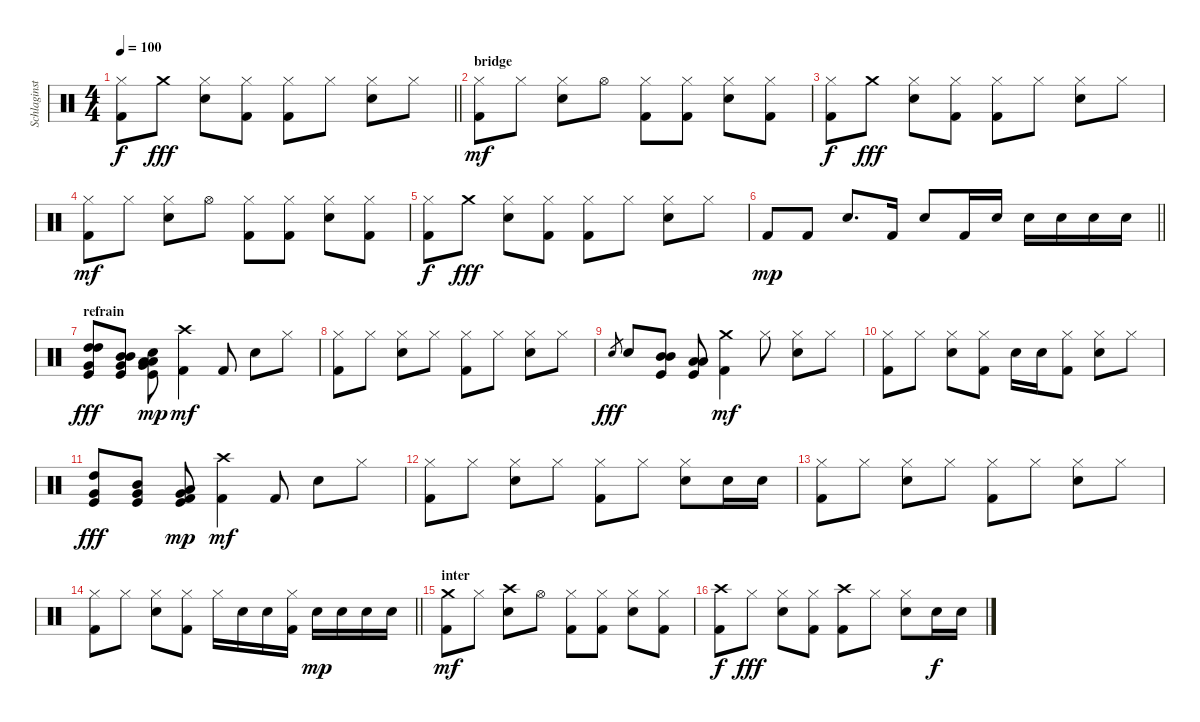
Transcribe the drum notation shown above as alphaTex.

\track ("Schlaginstrumente - Auswahl" "Schlaginst") {instrument percussion}
\staff {score}
\articulation defaults
\ts (4 4)
\tempo 100
\clef neutral
\barLineRight lightlight
\ks c
("Hi-Hat (closed)" "Kick (hit) 2").8{dy f} "Crash medium (hit)".8{dy fff} ("Hi-Hat (closed)" "Snare (hit) 2").8 ("Hi-Hat (closed)" "Kick (hit) 2").8 ("Hi-Hat (closed)" "Kick (hit) 2").8 "Hi-Hat (closed)".8 ("Hi-Hat (closed)" "Snare (hit) 2").8 "Hi-Hat (closed)".8 |
\section ("" "bridge")
("Hi-Hat (closed)" "Kick (hit) 2").8{dy mf} "Hi-Hat (closed)".8 ("Hi-Hat (closed)" "Snare (hit) 2").8 "Hi-Hat (open)".8 ("Hi-Hat (closed)" "Kick (hit) 2").8 ("Hi-Hat (closed)" "Kick (hit) 2").8 ("Hi-Hat (closed)" "Snare (hit) 2").8 ("Hi-Hat (closed)" "Kick (hit) 2").8 |
("Hi-Hat (closed)" "Kick (hit) 2").8{dy f} "Crash medium (hit)".8{dy fff} ("Hi-Hat (closed)" "Snare (hit) 2").8 ("Hi-Hat (closed)" "Kick (hit) 2").8 ("Hi-Hat (closed)" "Kick (hit) 2").8 "Hi-Hat (closed)".8 ("Hi-Hat (closed)" "Snare (hit) 2").8 "Hi-Hat (closed)".8 |
("Hi-Hat (closed)" "Kick (hit) 2").8{dy mf} "Hi-Hat (closed)".8 ("Hi-Hat (closed)" "Snare (hit) 2").8 "Hi-Hat (open)".8 ("Hi-Hat (closed)" "Kick (hit) 2").8 ("Hi-Hat (closed)" "Kick (hit) 2").8 ("Hi-Hat (closed)" "Snare (hit) 2").8 ("Hi-Hat (closed)" "Kick (hit) 2").8 |
("Hi-Hat (closed)" "Kick (hit) 2").8{dy f} "Crash medium (hit)".8{dy fff} ("Hi-Hat (closed)" "Snare (hit) 2").8 ("Hi-Hat (closed)" "Kick (hit) 2").8 ("Hi-Hat (closed)" "Kick (hit) 2").8 "Hi-Hat (closed)".8 ("Hi-Hat (closed)" "Snare (hit) 2").8 "Hi-Hat (closed)".8 |
\barLineRight lightlight "Kick (hit) 2".8{dy mp} "Kick (hit) 2".8 "Snare (hit) 2".8{d} "Kick (hit) 2".16 "Snare (hit) 2".8 "Kick (hit) 2".16 "Snare (hit) 2".16 "Snare (hit) 2".16 "Snare (hit) 2".16 "Snare (hit) 2".16 "Snare (hit) 2".16
|
\section ("" "refrain")
("Very Low Tom (hit)" "High Tom (hit)" "High Tom (hit)" "Kick (hit)").8{dy fff} ("Very Low Tom (hit)" "Mid Tom (hit)" "Mid Tom (hit)" "Kick (hit)").8 ("Very Low Tom (hit)" "Low Tom (hit)" "Low Tom (hit)" "Kick (hit)" "Snare (hit)").8{dy mp} ("Crash high (hit)" "Kick (hit) 2").4{dy mf} "Kick (hit) 2".8 "Snare (hit) 2".8 "Hi-Hat (closed)".8 |
("Hi-Hat (closed)" "Kick (hit) 2").8 "Hi-Hat (closed)".8 ("Hi-Hat (closed)" "Snare (hit) 2").8 "Hi-Hat (closed)".8 ("Hi-Hat (closed)" "Kick (hit) 2").8 "Hi-Hat (closed)".8 ("Hi-Hat (closed)" "Snare (hit) 2").8 "Hi-Hat (closed)".8 |
"Snare (hit) 2".8{gr dy fff} "Snare (hit) 2".8 ("Mid Tom (hit)" "Mid Tom (hit)" "Kick (hit)").8 ("Low Tom (hit)" "Low Tom (hit)" "Kick (hit)").8 ("Crash medium (hit)" "Kick (hit) 2").4{dy mf} "Hi-Hat (closed)".8 ("Hi-Hat (closed)" "Snare (hit) 2").8 "Hi-Hat (closed)".8 |
("Hi-Hat (closed)" "Kick (hit) 2").8 "Hi-Hat (closed)".8 ("Hi-Hat (closed)" "Snare (hit) 2").8 ("Hi-Hat (closed)" "Kick (hit) 2").8 "Snare (hit) 2".16 "Snare (hit) 2".16 ("Hi-Hat (closed)" "Kick (hit) 2").8 ("Hi-Hat (closed)" "Snare (hit) 2").8 "Hi-Hat (closed)".8 |
("Very Low Tom (hit)" "High Tom (hit)" "Kick (hit)").8{dy fff} ("Very Low Tom (hit)" "Mid Tom (hit)" "Kick (hit)").8 ("Very Low Tom (hit)" "Low Tom (hit)" "Kick (hit)" "Kick (hit) 2").8{dy mp} ("Crash high (hit)" "Kick (hit) 2").4{dy mf} "Kick (hit) 2".8 "Snare (hit) 2".8 "Hi-Hat (closed)".8 |
("Hi-Hat (closed)" "Kick (hit) 2").8 "Hi-Hat (closed)".8 ("Hi-Hat (closed)" "Snare (hit) 2").8 "Hi-Hat (closed)".8 ("Hi-Hat (closed)" "Kick (hit) 2").8 "Hi-Hat (closed)".8 ("Hi-Hat (closed)" "Snare (hit) 2").8 "Snare (hit) 2".16 "Snare (hit) 2".16 |
("Hi-Hat (closed)" "Kick (hit) 2").8 "Hi-Hat (closed)".8 ("Hi-Hat (closed)" "Snare (hit) 2").8 "Hi-Hat (closed)".8 ("Hi-Hat (closed)" "Kick (hit) 2").8 "Hi-Hat (closed)".8 ("Hi-Hat (closed)" "Snare (hit) 2").8 "Hi-Hat (closed)".8 |
\barLineRight lightlight
("Hi-Hat (closed)" "Kick (hit) 2").8 "Hi-Hat (closed)".8 ("Hi-Hat (closed)" "Snare (hit) 2").8 ("Hi-Hat (closed)" "Kick (hit) 2").8 "Hi-Hat (closed)".16 "Snare (hit) 2".16 "Snare (hit) 2".16 ("Hi-Hat (closed)" "Kick (hit) 2").16 "Snare (hit) 2".16{dy mp} "Snare (hit) 2".16 "Snare (hit) 2".16 "Snare (hit) 2".16 |
\section ("" "inter")
("Crash medium (hit)" "Kick (hit) 2").8{dy mf} "Hi-Hat (closed)".8 ("Crash high (hit)" "Snare (hit) 2").8 "Hi-Hat (open)".8 ("Hi-Hat (closed)" "Kick (hit) 2").8 ("Hi-Hat (closed)" "Kick (hit) 2").8 ("Hi-Hat (closed)" "Snare (hit) 2").8 ("Hi-Hat (closed)" "Kick (hit) 2").8 |
("Crash high (hit)" "Kick (hit) 2").8{dy f} "Hi-Hat (closed)".8{dy fff} ("Hi-Hat (closed)" "Snare (hit) 2").8 ("Hi-Hat (closed)" "Kick (hit) 2").8 ("Crash high (hit)" "Kick (hit) 2").8 "Hi-Hat (closed)".8 ("Hi-Hat (closed)" "Snare (hit) 2").8 "Snare (hit) 2".16{dy f} "Snare (hit) 2".16
